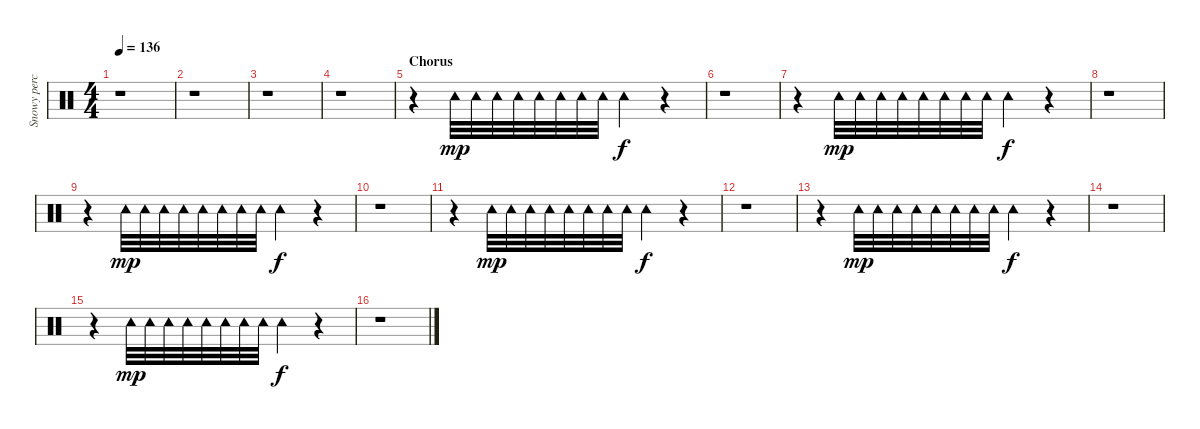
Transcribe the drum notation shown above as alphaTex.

\track ("Snowy percussion" "Snowy perc") {instrument percussion}
\staff {score}
\articulation defaults
\ts (4 4)
\tempo 136
\clef neutral
\ks c
r.1{dy f} |
r.1 |
r.1 |
r.1 |
\section ("" "Chorus")
r.4 "Tambourine (hit)".32{dy mp} "Tambourine (hit)".32 "Tambourine (hit)".32 "Tambourine (hit)".32 "Tambourine (hit)".32 "Tambourine (hit)".32 "Tambourine (hit)".32 "Tambourine (hit)".32 "Tambourine (hit)".4{dy f} r.4 |
r.1 |
r.4 "Tambourine (hit)".32{dy mp} "Tambourine (hit)".32 "Tambourine (hit)".32 "Tambourine (hit)".32 "Tambourine (hit)".32 "Tambourine (hit)".32 "Tambourine (hit)".32 "Tambourine (hit)".32 "Tambourine (hit)".4{dy f} r.4 |
r.1 |
r.4 "Tambourine (hit)".32{dy mp} "Tambourine (hit)".32 "Tambourine (hit)".32 "Tambourine (hit)".32 "Tambourine (hit)".32 "Tambourine (hit)".32 "Tambourine (hit)".32 "Tambourine (hit)".32 "Tambourine (hit)".4{dy f} r.4 |
r.1 |
r.4 "Tambourine (hit)".32{dy mp} "Tambourine (hit)".32 "Tambourine (hit)".32 "Tambourine (hit)".32 "Tambourine (hit)".32 "Tambourine (hit)".32 "Tambourine (hit)".32 "Tambourine (hit)".32 "Tambourine (hit)".4{dy f} r.4 |
r.1 |
r.4 "Tambourine (hit)".32{dy mp} "Tambourine (hit)".32 "Tambourine (hit)".32 "Tambourine (hit)".32 "Tambourine (hit)".32 "Tambourine (hit)".32 "Tambourine (hit)".32 "Tambourine (hit)".32 "Tambourine (hit)".4{dy f} r.4 |
r.1 |
r.4 "Tambourine (hit)".32{dy mp} "Tambourine (hit)".32 "Tambourine (hit)".32 "Tambourine (hit)".32 "Tambourine (hit)".32 "Tambourine (hit)".32 "Tambourine (hit)".32 "Tambourine (hit)".32 "Tambourine (hit)".4{dy f} r.4 |
r.1
